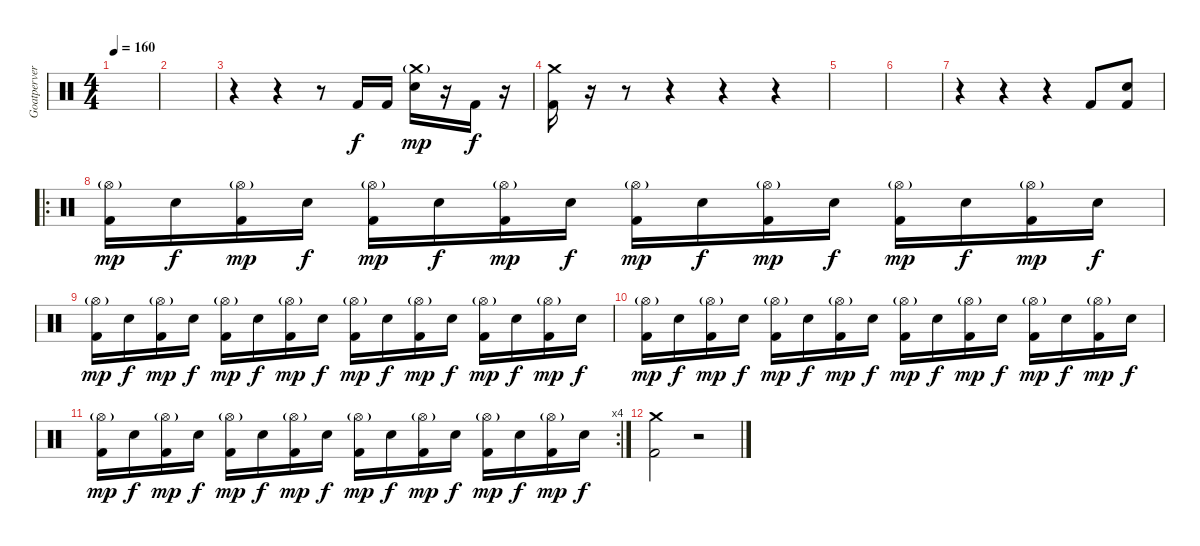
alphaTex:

\track ("Goatpervertor " "Goatperver") {instrument percussion}
\staff {score}
\articulation defaults
\ts (4 4)
\tempo 160
\clef neutral
\ks c
|
|
r.4 r.4 r.8 "Kick (hit) 2".16 "Kick (hit) 2".16 ("Crash medium (hit)"{g} "Electric Snare (hit)").16{dy mp} r.16 "Kick (hit) 2".16{dy f} r.16 |
("Crash medium (hit)" "Kick (hit) 2").16 r.16 r.8{volume 0} r.4 r.4 r.4 |
|
|
r.4 r.4 r.4 "Kick (hit) 2".8 ("Electric Snare (hit)" "Kick (hit) 2").8 |
\ro
("Hi-Hat (open)"{g} "Kick (hit) 2").16{dy mp} "Electric Snare (hit)".16{dy f} ("Hi-Hat (open)"{g} "Kick (hit) 2").16{dy mp} "Electric Snare (hit)".16{dy f} ("Hi-Hat (open)"{g} "Kick (hit) 2").16{dy mp} "Electric Snare (hit)".16{dy f} ("Hi-Hat (open)"{g} "Kick (hit) 2").16{dy mp} "Electric Snare (hit)".16{dy f} ("Hi-Hat (open)"{g} "Kick (hit) 2").16{dy mp} "Electric Snare (hit)".16{dy f} ("Hi-Hat (open)"{g} "Kick (hit) 2").16{dy mp} "Electric Snare (hit)".16{dy f} ("Hi-Hat (open)"{g} "Kick (hit) 2").16{dy mp} "Electric Snare (hit)".16{dy f} ("Hi-Hat (open)"{g} "Kick (hit) 2").16{dy mp} "Electric Snare (hit)".16{dy f} |
("Hi-Hat (open)"{g} "Kick (hit) 2").16{dy mp} "Electric Snare (hit)".16{dy f} ("Hi-Hat (open)"{g} "Kick (hit) 2").16{dy mp} "Electric Snare (hit)".16{dy f} ("Hi-Hat (open)"{g} "Kick (hit) 2").16{dy mp} "Electric Snare (hit)".16{dy f} ("Hi-Hat (open)"{g} "Kick (hit) 2").16{dy mp} "Electric Snare (hit)".16{dy f} ("Hi-Hat (open)"{g} "Kick (hit) 2").16{dy mp} "Electric Snare (hit)".16{dy f} ("Hi-Hat (open)"{g} "Kick (hit) 2").16{dy mp} "Electric Snare (hit)".16{dy f} ("Hi-Hat (open)"{g} "Kick (hit) 2").16{dy mp} "Electric Snare (hit)".16{dy f} ("Hi-Hat (open)"{g} "Kick (hit) 2").16{dy mp} "Electric Snare (hit)".16{dy f} |
("Hi-Hat (open)"{g} "Kick (hit) 2").16{dy mp} "Electric Snare (hit)".16{dy f} ("Hi-Hat (open)"{g} "Kick (hit) 2").16{dy mp} "Electric Snare (hit)".16{dy f} ("Hi-Hat (open)"{g} "Kick (hit) 2").16{dy mp} "Electric Snare (hit)".16{dy f} ("Hi-Hat (open)"{g} "Kick (hit) 2").16{dy mp} "Electric Snare (hit)".16{dy f} ("Hi-Hat (open)"{g} "Kick (hit) 2").16{dy mp} "Electric Snare (hit)".16{dy f} ("Hi-Hat (open)"{g} "Kick (hit) 2").16{dy mp} "Electric Snare (hit)".16{dy f} ("Hi-Hat (open)"{g} "Kick (hit) 2").16{dy mp} "Electric Snare (hit)".16{dy f} ("Hi-Hat (open)"{g} "Kick (hit) 2").16{dy mp} "Electric Snare (hit)".16{dy f} |
\rc 4
("Hi-Hat (open)"{g} "Kick (hit) 2").16{dy mp} "Electric Snare (hit)".16{dy f} ("Hi-Hat (open)"{g} "Kick (hit) 2").16{dy mp} "Electric Snare (hit)".16{dy f} ("Hi-Hat (open)"{g} "Kick (hit) 2").16{dy mp} "Electric Snare (hit)".16{dy f} ("Hi-Hat (open)"{g} "Kick (hit) 2").16{dy mp} "Electric Snare (hit)".16{dy f} ("Hi-Hat (open)"{g} "Kick (hit) 2").16{dy mp} "Electric Snare (hit)".16{dy f} ("Hi-Hat (open)"{g} "Kick (hit) 2").16{dy mp} "Electric Snare (hit)".16{dy f} ("Hi-Hat (open)"{g} "Kick (hit) 2").16{dy mp} "Electric Snare (hit)".16{dy f} ("Hi-Hat (open)"{g} "Kick (hit) 2").16{dy mp} "Electric Snare (hit)".16{dy f} |
("Crash medium (hit)" "Kick (hit) 2").2 r.2
